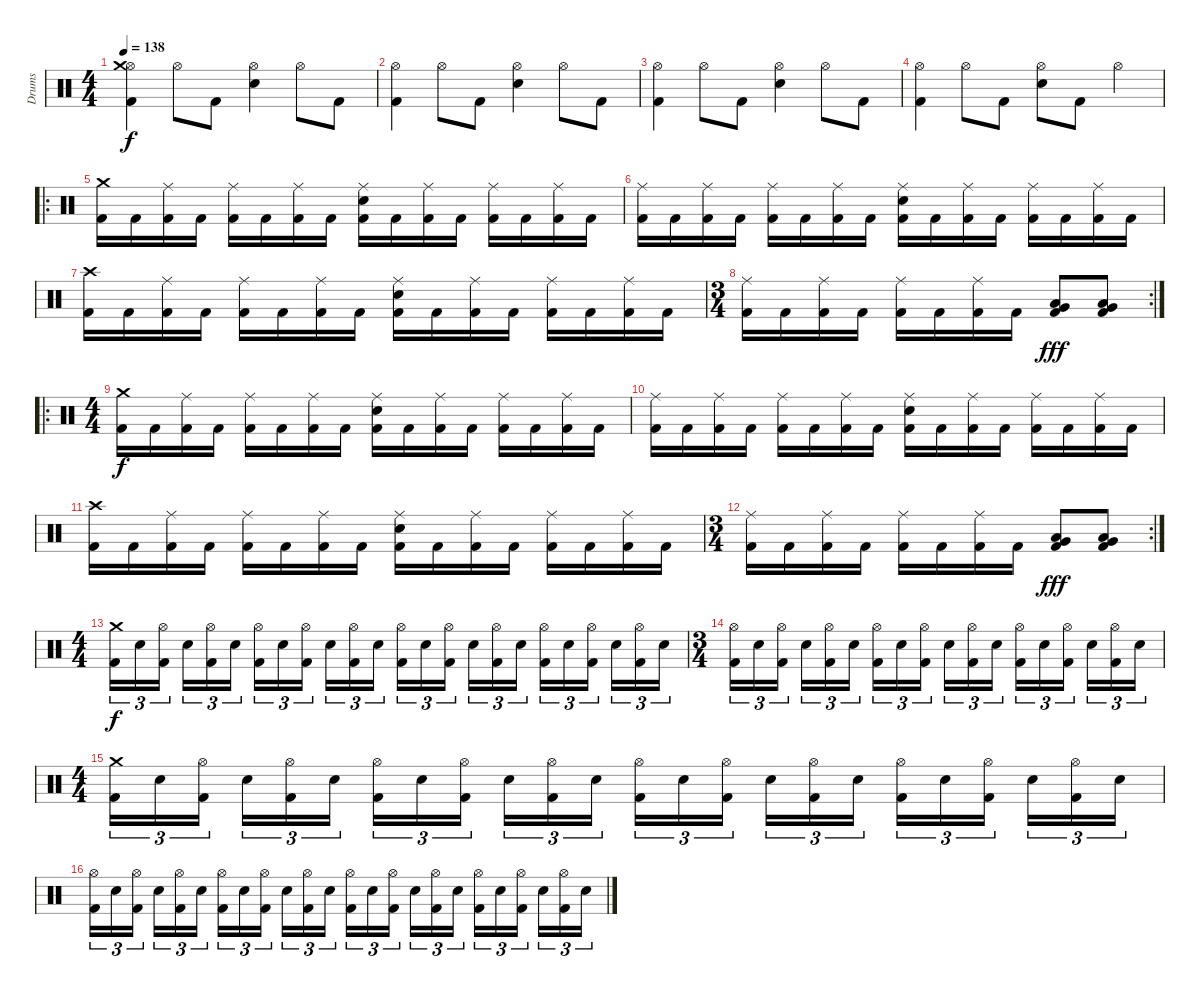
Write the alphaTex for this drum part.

\track ("Drums" "Drums") {instrument percussion}
\staff {score}
\articulation defaults
\ts (4 4)
\tempo 138
\clef neutral
\ks c
("Kick (hit) 2" "Hi-Hat (open)" "Crash medium (hit)").4{dy f} "Hi-Hat (open)".8 "Kick (hit) 2".8 ("Electric Snare (hit)" "Hi-Hat (open)").4 "Hi-Hat (open)".8 "Kick (hit) 2".8 |
("Kick (hit) 2" "Hi-Hat (open)").4 "Hi-Hat (open)".8 "Kick (hit) 2".8 ("Electric Snare (hit)" "Hi-Hat (open)").4 "Hi-Hat (open)".8 "Kick (hit) 2".8 |
("Kick (hit) 2" "Hi-Hat (open)").4 "Hi-Hat (open)".8 "Kick (hit) 2".8 ("Electric Snare (hit)" "Hi-Hat (open)").4 "Hi-Hat (open)".8 "Kick (hit) 2".8 |
("Kick (hit) 2" "Hi-Hat (open)").4 "Hi-Hat (open)".8 "Kick (hit) 2".8 ("Electric Snare (hit)" "Hi-Hat (open)").8 "Kick (hit) 2".8 "Hi-Hat (open)".4 |
\ro
("Kick (hit) 2" "Crash medium (hit)").16 "Kick (hit) 2".16 ("Kick (hit) 2" "Ride (middle)").16 "Kick (hit) 2".16 ("Kick (hit) 2" "Ride (middle)").16 "Kick (hit) 2".16 ("Kick (hit) 2" "Ride (middle)").16 "Kick (hit) 2".16 ("Kick (hit) 2" "Electric Snare (hit)" "Ride (middle)").16 "Kick (hit) 2".16 ("Kick (hit) 2" "Ride (middle)").16 "Kick (hit) 2".16 ("Kick (hit) 2" "Ride (middle)").16 "Kick (hit) 2".16 ("Kick (hit) 2" "Ride (middle)").16 "Kick (hit) 2".16 |
("Kick (hit) 2" "Ride (middle)").16 "Kick (hit) 2".16 ("Kick (hit) 2" "Ride (middle)").16 "Kick (hit) 2".16 ("Kick (hit) 2" "Ride (middle)").16 "Kick (hit) 2".16 ("Kick (hit) 2" "Ride (middle)").16 "Kick (hit) 2".16 ("Kick (hit) 2" "Electric Snare (hit)" "Ride (middle)").16 "Kick (hit) 2".16 ("Kick (hit) 2" "Ride (middle)").16 "Kick (hit) 2".16 ("Kick (hit) 2" "Ride (middle)").16 "Kick (hit) 2".16 ("Kick (hit) 2" "Ride (middle)").16 "Kick (hit) 2".16 |
("Kick (hit) 2" "Crash high (hit)").16 "Kick (hit) 2".16 ("Kick (hit) 2" "Ride (middle)").16 "Kick (hit) 2".16 ("Kick (hit) 2" "Ride (middle)").16 "Kick (hit) 2".16 ("Kick (hit) 2" "Ride (middle)").16 "Kick (hit) 2".16 ("Kick (hit) 2" "Electric Snare (hit)" "Ride (middle)").16 "Kick (hit) 2".16 ("Kick (hit) 2" "Ride (middle)").16 "Kick (hit) 2".16 ("Kick (hit) 2" "Ride (middle)").16 "Kick (hit) 2".16 ("Kick (hit) 2" "Ride (middle)").16 "Kick (hit) 2".16 |
\rc 2
\ts (3 4)
("Kick (hit) 2" "Ride (middle)").16 "Kick (hit) 2".16 ("Kick (hit) 2" "Ride (middle)").16 "Kick (hit) 2".16 ("Kick (hit) 2" "Ride (middle)").16 "Kick (hit) 2".16 ("Kick (hit) 2" "Ride (middle)").16 "Kick (hit) 2".16 ("Kick (hit) 2" "Low Tom (hit)" "Very Low Tom (hit)").8{dy fff} ("Kick (hit) 2" "Low Tom (hit)" "Very Low Tom (hit)").8 |
\ro
\ts (4 4)
("Kick (hit) 2" "Crash medium (hit)").16{dy f} "Kick (hit) 2".16 ("Kick (hit) 2" "Ride (middle)").16 "Kick (hit) 2".16 ("Kick (hit) 2" "Ride (middle)").16 "Kick (hit) 2".16 ("Kick (hit) 2" "Ride (middle)").16 "Kick (hit) 2".16 ("Kick (hit) 2" "Electric Snare (hit)" "Ride (middle)").16 "Kick (hit) 2".16 ("Kick (hit) 2" "Ride (middle)").16 "Kick (hit) 2".16 ("Kick (hit) 2" "Ride (middle)").16 "Kick (hit) 2".16 ("Kick (hit) 2" "Ride (middle)").16 "Kick (hit) 2".16 |
("Kick (hit) 2" "Ride (middle)").16 "Kick (hit) 2".16 ("Kick (hit) 2" "Ride (middle)").16 "Kick (hit) 2".16 ("Kick (hit) 2" "Ride (middle)").16 "Kick (hit) 2".16 ("Kick (hit) 2" "Ride (middle)").16 "Kick (hit) 2".16 ("Kick (hit) 2" "Electric Snare (hit)" "Ride (middle)").16 "Kick (hit) 2".16 ("Kick (hit) 2" "Ride (middle)").16 "Kick (hit) 2".16 ("Kick (hit) 2" "Ride (middle)").16 "Kick (hit) 2".16 ("Kick (hit) 2" "Ride (middle)").16 "Kick (hit) 2".16 |
("Kick (hit) 2" "Crash high (hit)").16 "Kick (hit) 2".16 ("Kick (hit) 2" "Ride (middle)").16 "Kick (hit) 2".16 ("Kick (hit) 2" "Ride (middle)").16 "Kick (hit) 2".16 ("Kick (hit) 2" "Ride (middle)").16 "Kick (hit) 2".16 ("Kick (hit) 2" "Electric Snare (hit)" "Ride (middle)").16 "Kick (hit) 2".16 ("Kick (hit) 2" "Ride (middle)").16 "Kick (hit) 2".16 ("Kick (hit) 2" "Ride (middle)").16 "Kick (hit) 2".16 ("Kick (hit) 2" "Ride (middle)").16 "Kick (hit) 2".16 |
\rc 2
\ts (3 4)
("Kick (hit) 2" "Ride (middle)").16 "Kick (hit) 2".16 ("Kick (hit) 2" "Ride (middle)").16 "Kick (hit) 2".16 ("Kick (hit) 2" "Ride (middle)").16 "Kick (hit) 2".16 ("Kick (hit) 2" "Ride (middle)").16 "Kick (hit) 2".16 ("Kick (hit) 2" "Low Tom (hit)" "Very Low Tom (hit)").8{dy fff} ("Kick (hit) 2" "Low Tom (hit)" "Very Low Tom (hit)").8 |
\ts (4 4)
("Kick (hit) 2" "Crash medium (hit)").16{tu (3 2) dy f} "Snare (hit) 2".16{tu (3 2)} ("Kick (hit) 2" "Hi-Hat (open)").16{tu (3 2)} "Snare (hit) 2".16{tu (3 2)} ("Kick (hit) 2" "Hi-Hat (open)").16{tu (3 2)} "Snare (hit) 2".16{tu (3 2)} ("Kick (hit) 2" "Hi-Hat (open)").16{tu (3 2)} "Snare (hit) 2".16{tu (3 2)} ("Kick (hit) 2" "Hi-Hat (open)").16{tu (3 2)} "Snare (hit) 2".16{tu (3 2)} ("Kick (hit) 2" "Hi-Hat (open)").16{tu (3 2)} "Snare (hit) 2".16{tu (3 2)} ("Kick (hit) 2" "Hi-Hat (open)").16{tu (3 2)} "Snare (hit) 2".16{tu (3 2)} ("Kick (hit) 2" "Hi-Hat (open)").16{tu (3 2)} "Snare (hit) 2".16{tu (3 2)} ("Kick (hit) 2" "Hi-Hat (open)").16{tu (3 2)} "Snare (hit) 2".16{tu (3 2)} ("Kick (hit) 2" "Hi-Hat (open)").16{tu (3 2)} "Snare (hit) 2".16{tu (3 2)} ("Kick (hit) 2" "Hi-Hat (open)").16{tu (3 2)} "Snare (hit) 2".16{tu (3 2)} ("Kick (hit) 2" "Hi-Hat (open)").16{tu (3 2)} "Snare (hit) 2".16{tu (3 2)} |
\ts (3 4)
("Kick (hit) 2" "Hi-Hat (open)").16{tu (3 2)} "Snare (hit) 2".16{tu (3 2)} ("Kick (hit) 2" "Hi-Hat (open)").16{tu (3 2)} "Snare (hit) 2".16{tu (3 2)} ("Kick (hit) 2" "Hi-Hat (open)").16{tu (3 2)} "Snare (hit) 2".16{tu (3 2)} ("Kick (hit) 2" "Hi-Hat (open)").16{tu (3 2)} "Snare (hit) 2".16{tu (3 2)} ("Kick (hit) 2" "Hi-Hat (open)").16{tu (3 2)} "Snare (hit) 2".16{tu (3 2)} ("Kick (hit) 2" "Hi-Hat (open)").16{tu (3 2)} "Snare (hit) 2".16{tu (3 2)} ("Kick (hit) 2" "Hi-Hat (open)").16{tu (3 2)} "Snare (hit) 2".16{tu (3 2)} ("Kick (hit) 2" "Hi-Hat (open)").16{tu (3 2)} "Snare (hit) 2".16{tu (3 2)} ("Kick (hit) 2" "Hi-Hat (open)").16{tu (3 2)} "Snare (hit) 2".16{tu (3 2)} |
\ts (4 4)
("Kick (hit) 2" "Crash medium (hit)").16{tu (3 2)} "Snare (hit) 2".16{tu (3 2)} ("Kick (hit) 2" "Hi-Hat (open)").16{tu (3 2)} "Snare (hit) 2".16{tu (3 2)} ("Kick (hit) 2" "Hi-Hat (open)").16{tu (3 2)} "Snare (hit) 2".16{tu (3 2)} ("Kick (hit) 2" "Hi-Hat (open)").16{tu (3 2)} "Snare (hit) 2".16{tu (3 2)} ("Kick (hit) 2" "Hi-Hat (open)").16{tu (3 2)} "Snare (hit) 2".16{tu (3 2)} ("Kick (hit) 2" "Hi-Hat (open)").16{tu (3 2)} "Snare (hit) 2".16{tu (3 2)} ("Kick (hit) 2" "Hi-Hat (open)").16{tu (3 2)} "Snare (hit) 2".16{tu (3 2)} ("Kick (hit) 2" "Hi-Hat (open)").16{tu (3 2)} "Snare (hit) 2".16{tu (3 2)} ("Kick (hit) 2" "Hi-Hat (open)").16{tu (3 2)} "Snare (hit) 2".16{tu (3 2)} ("Kick (hit) 2" "Hi-Hat (open)").16{tu (3 2)} "Snare (hit) 2".16{tu (3 2)} ("Kick (hit) 2" "Hi-Hat (open)").16{tu (3 2)} "Snare (hit) 2".16{tu (3 2)} ("Kick (hit) 2" "Hi-Hat (open)").16{tu (3 2)} "Snare (hit) 2".16{tu (3 2)} |
("Kick (hit) 2" "Hi-Hat (open)").16{tu (3 2)} "Snare (hit) 2".16{tu (3 2)} ("Kick (hit) 2" "Hi-Hat (open)").16{tu (3 2)} "Snare (hit) 2".16{tu (3 2)} ("Kick (hit) 2" "Hi-Hat (open)").16{tu (3 2)} "Snare (hit) 2".16{tu (3 2)} ("Kick (hit) 2" "Hi-Hat (open)").16{tu (3 2)} "Snare (hit) 2".16{tu (3 2)} ("Kick (hit) 2" "Hi-Hat (open)").16{tu (3 2)} "Snare (hit) 2".16{tu (3 2)} ("Kick (hit) 2" "Hi-Hat (open)").16{tu (3 2)} "Snare (hit) 2".16{tu (3 2)} ("Kick (hit) 2" "Hi-Hat (open)").16{tu (3 2)} "Snare (hit) 2".16{tu (3 2)} ("Kick (hit) 2" "Hi-Hat (open)").16{tu (3 2)} "Snare (hit) 2".16{tu (3 2)} ("Kick (hit) 2" "Hi-Hat (open)").16{tu (3 2)} "Snare (hit) 2".16{tu (3 2)} ("Kick (hit) 2" "Hi-Hat (open)").16{tu (3 2)} "Snare (hit) 2".16{tu (3 2)} ("Kick (hit) 2" "Hi-Hat (open)").16{tu (3 2)} "Snare (hit) 2".16{tu (3 2)} ("Kick (hit) 2" "Hi-Hat (open)").16{tu (3 2)} "Snare (hit) 2".16{tu (3 2)}
